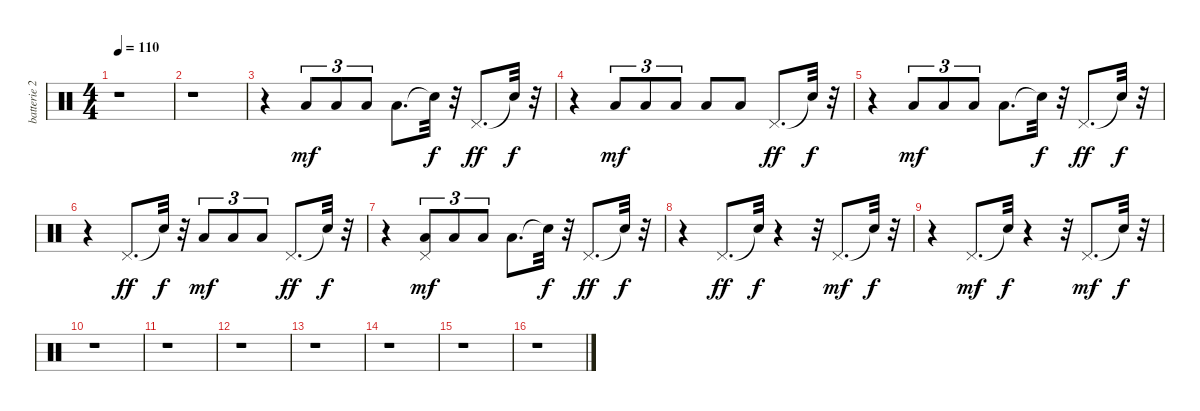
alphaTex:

\track ("batterie 2" "batterie 2") {instrument percussion}
\staff {score}
\articulation defaults
\ts (4 4)
\tempo 110
\clef neutral
\ks c
r.1{dy mf} |
r.1 |
r.4 "Low Floor Tom (hit)".8{tu (3 2)} "Low Floor Tom (hit)".8{tu (3 2)} "Low Floor Tom (hit)".8{tu (3 2)} "Low Floor Tom (hit)".8{d} "Snare (hit)"{t}.32{dy f} r.32 "Pedal Hi-Hat (hit)".8{d dy ff} "Snare (hit)"{t}.32{dy f} r.32 |
r.4 "Low Floor Tom (hit)".8{tu (3 2) dy mf} "Low Floor Tom (hit)".8{tu (3 2)} "Low Floor Tom (hit)".8{tu (3 2)} "Low Floor Tom (hit)".8 "Low Floor Tom (hit)".8 "Pedal Hi-Hat (hit)".8{d dy ff} "Snare (hit)"{t}.32{dy f} r.32 |
r.4 "Low Floor Tom (hit)".8{tu (3 2) dy mf} "Low Floor Tom (hit)".8{tu (3 2)} "Low Floor Tom (hit)".8{tu (3 2)} "Low Floor Tom (hit)".8{d} "Snare (hit)"{t}.32{dy f} r.32 "Pedal Hi-Hat (hit)".8{d dy ff} "Snare (hit)"{t}.32{dy f} r.32 |
r.4 "Pedal Hi-Hat (hit)".8{d dy ff} "Snare (hit)"{t}.32{dy f} r.32 "Low Floor Tom (hit)".8{tu (3 2) dy mf} "Low Floor Tom (hit)".8{tu (3 2)} "Low Floor Tom (hit)".8{tu (3 2)} "Pedal Hi-Hat (hit)".8{d dy ff} "Snare (hit)"{t}.32{dy f} r.32 |
r.4 ("Low Floor Tom (hit)" "Pedal Hi-Hat (hit)").8{tu (3 2) dy mf} "Low Floor Tom (hit)".8{tu (3 2)} "Low Floor Tom (hit)".8{tu (3 2)} "Low Floor Tom (hit)".8{d} "Snare (hit)"{t}.32{dy f} r.32 "Pedal Hi-Hat (hit)".8{d dy ff} "Snare (hit)"{t}.32{dy f} r.32 |
r.4 "Pedal Hi-Hat (hit)".8{d dy ff} "Snare (hit)"{t}.32{dy f} r.4 r.32 "Pedal Hi-Hat (hit)".8{d dy mf} "Snare (hit)"{t}.32{dy f} r.32 |
r.4 "Pedal Hi-Hat (hit)".8{d dy mf} "Snare (hit)"{t}.32{dy f} r.4 r.32 "Pedal Hi-Hat (hit)".8{d dy mf} "Snare (hit)"{t}.32{dy f} r.32 |
r.1 |
r.1 |
r.1 |
r.1 |
r.1 |
r.1 |
r.1
